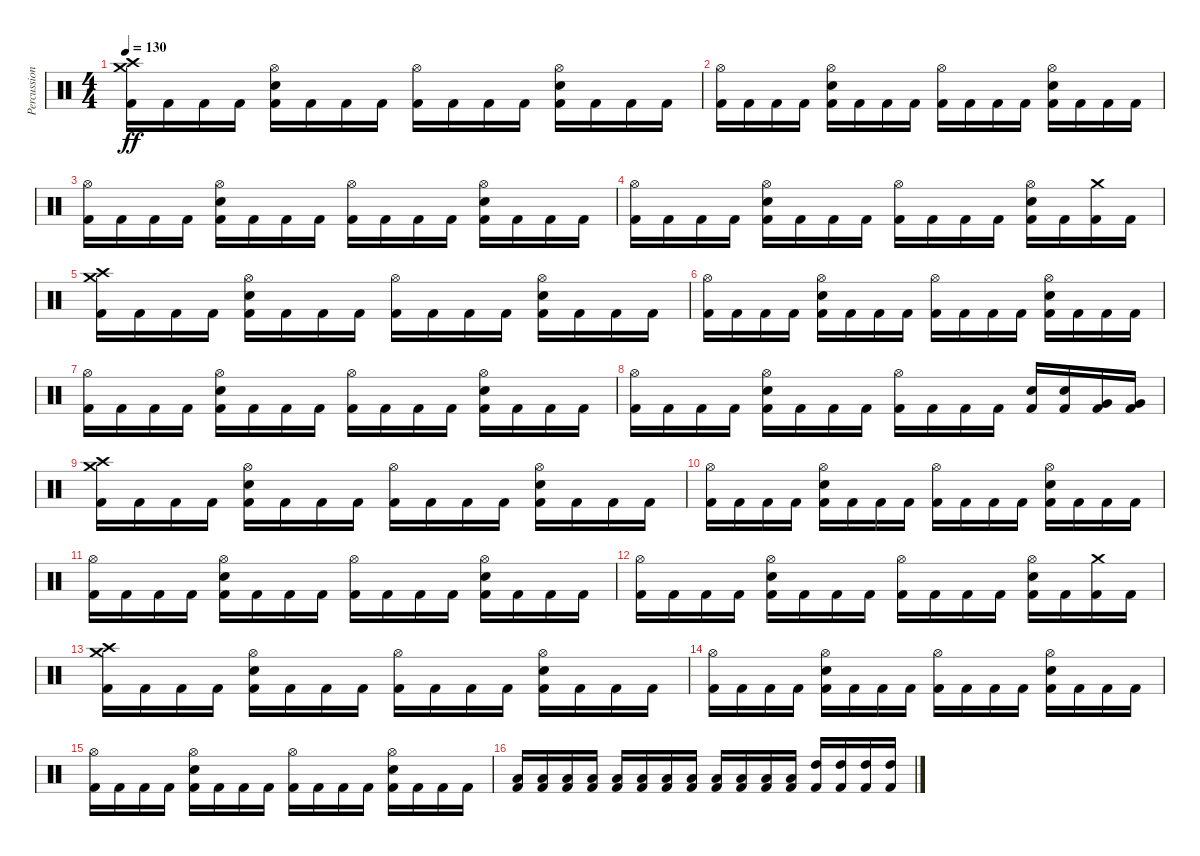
\track ("Percussion" "Percussion") {instrument percussion}
\staff {score}
\articulation defaults
\ts (4 4)
\tempo 130
\clef neutral
\ks c
("Kick (hit) 2" "Crash high (hit)" "Crash medium (hit)").16{dy ff} "Kick (hit) 2".16 "Kick (hit) 2".16 "Kick (hit) 2".16 ("Kick (hit) 2" "Electric Snare (hit)" "Hi-Hat (open)").16 "Kick (hit) 2".16 "Kick (hit) 2".16 "Kick (hit) 2".16 ("Kick (hit) 2" "Hi-Hat (open)").16 "Kick (hit) 2".16 "Kick (hit) 2".16 "Kick (hit) 2".16 ("Kick (hit) 2" "Electric Snare (hit)" "Hi-Hat (open)").16 "Kick (hit) 2".16 "Kick (hit) 2".16 "Kick (hit) 2".16 |
("Kick (hit) 2" "Hi-Hat (open)").16 "Kick (hit) 2".16 "Kick (hit) 2".16 "Kick (hit) 2".16 ("Kick (hit) 2" "Electric Snare (hit)" "Hi-Hat (open)").16 "Kick (hit) 2".16 "Kick (hit) 2".16 "Kick (hit) 2".16 ("Kick (hit) 2" "Hi-Hat (open)").16 "Kick (hit) 2".16 "Kick (hit) 2".16 "Kick (hit) 2".16 ("Kick (hit) 2" "Electric Snare (hit)" "Hi-Hat (open)").16 "Kick (hit) 2".16 "Kick (hit) 2".16 "Kick (hit) 2".16 |
("Kick (hit) 2" "Hi-Hat (open)").16 "Kick (hit) 2".16 "Kick (hit) 2".16 "Kick (hit) 2".16 ("Kick (hit) 2" "Electric Snare (hit)" "Hi-Hat (open)").16 "Kick (hit) 2".16 "Kick (hit) 2".16 "Kick (hit) 2".16 ("Kick (hit) 2" "Hi-Hat (open)").16 "Kick (hit) 2".16 "Kick (hit) 2".16 "Kick (hit) 2".16 ("Kick (hit) 2" "Electric Snare (hit)" "Hi-Hat (open)").16 "Kick (hit) 2".16 "Kick (hit) 2".16 "Kick (hit) 2".16 |
("Kick (hit) 2" "Hi-Hat (open)").16 "Kick (hit) 2".16 "Kick (hit) 2".16 "Kick (hit) 2".16 ("Kick (hit) 2" "Electric Snare (hit)" "Hi-Hat (open)").16 "Kick (hit) 2".16 "Kick (hit) 2".16 "Kick (hit) 2".16 ("Kick (hit) 2" "Hi-Hat (open)").16 "Kick (hit) 2".16 "Kick (hit) 2".16 "Kick (hit) 2".16 ("Kick (hit) 2" "Electric Snare (hit)" "Hi-Hat (open)").16 "Kick (hit) 2".16 ("Kick (hit) 2" "Crash medium (hit)").16 "Kick (hit) 2".16 |
("Kick (hit) 2" "Crash high (hit)" "Crash medium (hit)").16 "Kick (hit) 2".16 "Kick (hit) 2".16 "Kick (hit) 2".16 ("Kick (hit) 2" "Electric Snare (hit)" "Hi-Hat (open)").16 "Kick (hit) 2".16 "Kick (hit) 2".16 "Kick (hit) 2".16 ("Kick (hit) 2" "Hi-Hat (open)").16 "Kick (hit) 2".16 "Kick (hit) 2".16 "Kick (hit) 2".16 ("Kick (hit) 2" "Electric Snare (hit)" "Hi-Hat (open)").16 "Kick (hit) 2".16 "Kick (hit) 2".16 "Kick (hit) 2".16 |
("Kick (hit) 2" "Hi-Hat (open)").16 "Kick (hit) 2".16 "Kick (hit) 2".16 "Kick (hit) 2".16 ("Kick (hit) 2" "Electric Snare (hit)" "Hi-Hat (open)").16 "Kick (hit) 2".16 "Kick (hit) 2".16 "Kick (hit) 2".16 ("Kick (hit) 2" "Hi-Hat (open)").16 "Kick (hit) 2".16 "Kick (hit) 2".16 "Kick (hit) 2".16 ("Kick (hit) 2" "Electric Snare (hit)" "Hi-Hat (open)").16 "Kick (hit) 2".16 "Kick (hit) 2".16 "Kick (hit) 2".16 |
("Kick (hit) 2" "Hi-Hat (open)").16 "Kick (hit) 2".16 "Kick (hit) 2".16 "Kick (hit) 2".16 ("Kick (hit) 2" "Electric Snare (hit)" "Hi-Hat (open)").16 "Kick (hit) 2".16 "Kick (hit) 2".16 "Kick (hit) 2".16 ("Kick (hit) 2" "Hi-Hat (open)").16 "Kick (hit) 2".16 "Kick (hit) 2".16 "Kick (hit) 2".16 ("Kick (hit) 2" "Electric Snare (hit)" "Hi-Hat (open)").16 "Kick (hit) 2".16 "Kick (hit) 2".16 "Kick (hit) 2".16 |
("Kick (hit) 2" "Hi-Hat (open)").16 "Kick (hit) 2".16 "Kick (hit) 2".16 "Kick (hit) 2".16 ("Kick (hit) 2" "Electric Snare (hit)" "Hi-Hat (open)").16 "Kick (hit) 2".16 "Kick (hit) 2".16 "Kick (hit) 2".16 ("Kick (hit) 2" "Hi-Hat (open)").16 "Kick (hit) 2".16 "Kick (hit) 2".16 "Kick (hit) 2".16 ("Kick (hit) 2" "Electric Snare (hit)").16 ("Kick (hit) 2" "Electric Snare (hit)").16 ("Kick (hit) 2" "Very Low Tom (hit)").16 ("Kick (hit) 2" "Very Low Tom (hit)").16 |
("Kick (hit) 2" "Crash high (hit)" "Crash medium (hit)").16 "Kick (hit) 2".16 "Kick (hit) 2".16 "Kick (hit) 2".16 ("Kick (hit) 2" "Electric Snare (hit)" "Hi-Hat (open)").16 "Kick (hit) 2".16 "Kick (hit) 2".16 "Kick (hit) 2".16 ("Kick (hit) 2" "Hi-Hat (open)").16 "Kick (hit) 2".16 "Kick (hit) 2".16 "Kick (hit) 2".16 ("Kick (hit) 2" "Electric Snare (hit)" "Hi-Hat (open)").16 "Kick (hit) 2".16 "Kick (hit) 2".16 "Kick (hit) 2".16 |
("Kick (hit) 2" "Hi-Hat (open)").16 "Kick (hit) 2".16 "Kick (hit) 2".16 "Kick (hit) 2".16 ("Kick (hit) 2" "Electric Snare (hit)" "Hi-Hat (open)").16 "Kick (hit) 2".16 "Kick (hit) 2".16 "Kick (hit) 2".16 ("Kick (hit) 2" "Hi-Hat (open)").16 "Kick (hit) 2".16 "Kick (hit) 2".16 "Kick (hit) 2".16 ("Kick (hit) 2" "Electric Snare (hit)" "Hi-Hat (open)").16 "Kick (hit) 2".16 "Kick (hit) 2".16 "Kick (hit) 2".16 |
("Kick (hit) 2" "Hi-Hat (open)").16 "Kick (hit) 2".16 "Kick (hit) 2".16 "Kick (hit) 2".16 ("Kick (hit) 2" "Electric Snare (hit)" "Hi-Hat (open)").16 "Kick (hit) 2".16 "Kick (hit) 2".16 "Kick (hit) 2".16 ("Kick (hit) 2" "Hi-Hat (open)").16 "Kick (hit) 2".16 "Kick (hit) 2".16 "Kick (hit) 2".16 ("Kick (hit) 2" "Electric Snare (hit)" "Hi-Hat (open)").16 "Kick (hit) 2".16 "Kick (hit) 2".16 "Kick (hit) 2".16 |
("Kick (hit) 2" "Hi-Hat (open)").16 "Kick (hit) 2".16 "Kick (hit) 2".16 "Kick (hit) 2".16 ("Kick (hit) 2" "Electric Snare (hit)" "Hi-Hat (open)").16 "Kick (hit) 2".16 "Kick (hit) 2".16 "Kick (hit) 2".16 ("Kick (hit) 2" "Hi-Hat (open)").16 "Kick (hit) 2".16 "Kick (hit) 2".16 "Kick (hit) 2".16 ("Kick (hit) 2" "Electric Snare (hit)" "Hi-Hat (open)").16 "Kick (hit) 2".16 ("Kick (hit) 2" "Crash medium (hit)").16 "Kick (hit) 2".16 |
("Kick (hit) 2" "Crash high (hit)" "Crash medium (hit)").16 "Kick (hit) 2".16 "Kick (hit) 2".16 "Kick (hit) 2".16 ("Kick (hit) 2" "Electric Snare (hit)" "Hi-Hat (open)").16 "Kick (hit) 2".16 "Kick (hit) 2".16 "Kick (hit) 2".16 ("Kick (hit) 2" "Hi-Hat (open)").16 "Kick (hit) 2".16 "Kick (hit) 2".16 "Kick (hit) 2".16 ("Kick (hit) 2" "Electric Snare (hit)" "Hi-Hat (open)").16 "Kick (hit) 2".16 "Kick (hit) 2".16 "Kick (hit) 2".16 |
("Kick (hit) 2" "Hi-Hat (open)").16 "Kick (hit) 2".16 "Kick (hit) 2".16 "Kick (hit) 2".16 ("Kick (hit) 2" "Electric Snare (hit)" "Hi-Hat (open)").16 "Kick (hit) 2".16 "Kick (hit) 2".16 "Kick (hit) 2".16 ("Kick (hit) 2" "Hi-Hat (open)").16 "Kick (hit) 2".16 "Kick (hit) 2".16 "Kick (hit) 2".16 ("Kick (hit) 2" "Electric Snare (hit)" "Hi-Hat (open)").16 "Kick (hit) 2".16 "Kick (hit) 2".16 "Kick (hit) 2".16 |
("Kick (hit) 2" "Hi-Hat (open)").16 "Kick (hit) 2".16 "Kick (hit) 2".16 "Kick (hit) 2".16 ("Kick (hit) 2" "Electric Snare (hit)" "Hi-Hat (open)").16 "Kick (hit) 2".16 "Kick (hit) 2".16 "Kick (hit) 2".16 ("Kick (hit) 2" "Hi-Hat (open)").16 "Kick (hit) 2".16 "Kick (hit) 2".16 "Kick (hit) 2".16 ("Kick (hit) 2" "Electric Snare (hit)" "Hi-Hat (open)").16 "Kick (hit) 2".16 "Kick (hit) 2".16 "Kick (hit) 2".16 |
("Kick (hit) 2" "Low Tom (hit)").16 ("Kick (hit) 2" "Low Tom (hit)").16 ("Kick (hit) 2" "Low Tom (hit)").16 ("Kick (hit) 2" "Low Tom (hit)").16 ("Kick (hit) 2" "Low Floor Tom (hit)").16 ("Kick (hit) 2" "Low Floor Tom (hit)").16 ("Kick (hit) 2" "Low Floor Tom (hit)").16 ("Kick (hit) 2" "Low Floor Tom (hit)").16 ("Kick (hit) 2" "Low Tom (hit)").16 ("Kick (hit) 2" "Low Tom (hit)").16 ("Kick (hit) 2" "Low Tom (hit)").16 ("Kick (hit) 2" "Low Tom (hit)").16 ("Kick (hit) 2" "High Tom (hit)").16 ("Kick (hit) 2" "High Tom (hit)").16 ("Kick (hit) 2" "High Tom (hit)").16 ("Kick (hit) 2" "High Tom (hit)").16
